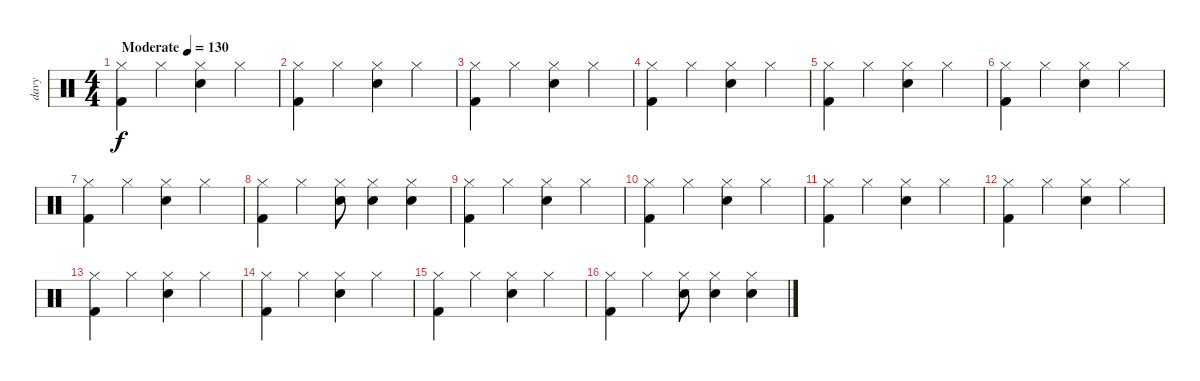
\track ("davy" "davy") {instrument percussion}
\staff {score}
\articulation defaults
\ts (4 4)
\tempo (130 "Moderate")
\clef neutral
\ks c
("Hi-Hat (closed)" "Kick (hit) 2").4{dy f} "Hi-Hat (closed)".4 ("Hi-Hat (closed)" "Snare (hit) 2").4 "Hi-Hat (closed)".4 |
("Hi-Hat (closed)" "Kick (hit) 2").4 "Hi-Hat (closed)".4 ("Hi-Hat (closed)" "Snare (hit) 2").4 "Hi-Hat (closed)".4 |
("Hi-Hat (closed)" "Kick (hit) 2").4 "Hi-Hat (closed)".4 ("Hi-Hat (closed)" "Snare (hit) 2").4 "Hi-Hat (closed)".4 |
("Hi-Hat (closed)" "Kick (hit) 2").4 "Hi-Hat (closed)".4 ("Hi-Hat (closed)" "Snare (hit) 2").4 "Hi-Hat (closed)".4 |
("Hi-Hat (closed)" "Kick (hit) 2").4 "Hi-Hat (closed)".4 ("Hi-Hat (closed)" "Snare (hit) 2").4 "Hi-Hat (closed)".4 |
("Hi-Hat (closed)" "Kick (hit) 2").4 "Hi-Hat (closed)".4 ("Hi-Hat (closed)" "Snare (hit) 2").4 "Hi-Hat (closed)".4 |
("Hi-Hat (closed)" "Kick (hit) 2").4 "Hi-Hat (closed)".4 ("Hi-Hat (closed)" "Snare (hit) 2").4 "Hi-Hat (closed)".4 |
("Hi-Hat (closed)" "Kick (hit) 2").4 "Hi-Hat (closed)".4 ("Hi-Hat (closed)" "Snare (hit) 2").8 ("Hi-Hat (closed)" "Snare (hit) 2").4 ("Hi-Hat (closed)" "Snare (hit) 2").4 |
("Hi-Hat (closed)" "Kick (hit) 2").4 "Hi-Hat (closed)".4 ("Hi-Hat (closed)" "Snare (hit) 2").4 "Hi-Hat (closed)".4 |
("Hi-Hat (closed)" "Kick (hit) 2").4 "Hi-Hat (closed)".4 ("Hi-Hat (closed)" "Snare (hit) 2").4 "Hi-Hat (closed)".4 |
("Hi-Hat (closed)" "Kick (hit) 2").4 "Hi-Hat (closed)".4 ("Hi-Hat (closed)" "Snare (hit) 2").4 "Hi-Hat (closed)".4 |
("Hi-Hat (closed)" "Kick (hit) 2").4 "Hi-Hat (closed)".4 ("Hi-Hat (closed)" "Snare (hit) 2").4 "Hi-Hat (closed)".4 |
("Hi-Hat (closed)" "Kick (hit) 2").4 "Hi-Hat (closed)".4 ("Hi-Hat (closed)" "Snare (hit) 2").4 "Hi-Hat (closed)".4 |
("Hi-Hat (closed)" "Kick (hit) 2").4 "Hi-Hat (closed)".4 ("Hi-Hat (closed)" "Snare (hit) 2").4 "Hi-Hat (closed)".4 |
("Hi-Hat (closed)" "Kick (hit) 2").4 "Hi-Hat (closed)".4 ("Hi-Hat (closed)" "Snare (hit) 2").4 "Hi-Hat (closed)".4 |
("Hi-Hat (closed)" "Kick (hit) 2").4 "Hi-Hat (closed)".4 ("Hi-Hat (closed)" "Snare (hit) 2").8 ("Hi-Hat (closed)" "Snare (hit) 2").4 ("Hi-Hat (closed)" "Snare (hit) 2").4
